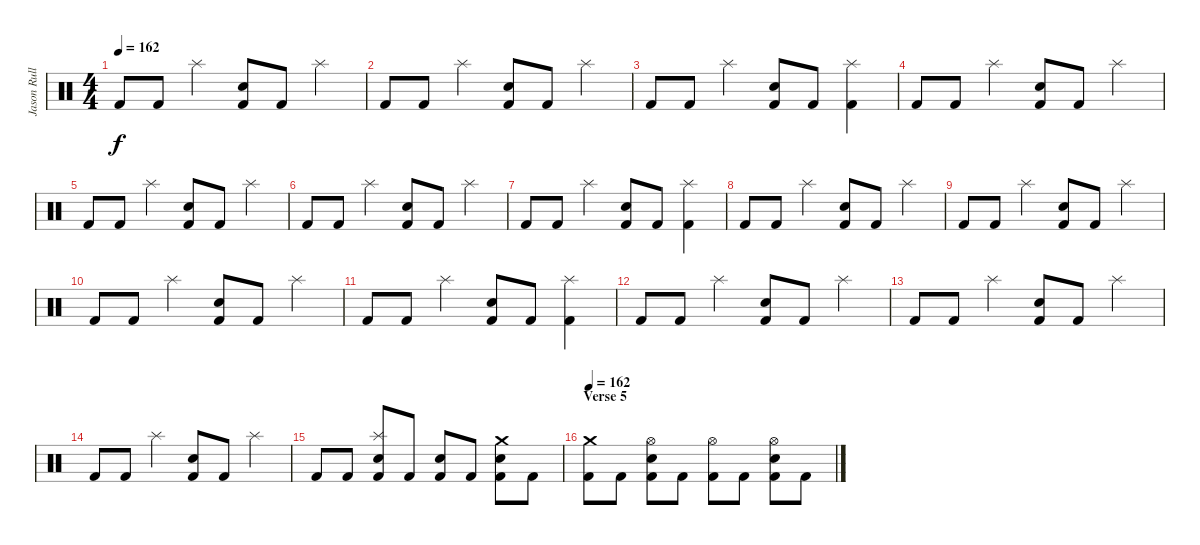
\track ("Jason Rullo" "Jason Rull") {instrument percussion}
\staff {score}
\articulation defaults
\ts (4 4)
\tempo 162
\clef neutral
\ks c "Kick (hit) 2".8{dy f} "Kick (hit) 2".8 "Splash (hit)".4
("Kick (hit) 2" "Electric Snare (hit)").8 "Kick (hit) 2".8 "Splash (hit)".4 |
"Kick (hit) 2".8 "Kick (hit) 2".8 "Splash (hit)".4 ("Kick (hit) 2" "Electric Snare (hit)").8 "Kick (hit) 2".8 "Splash (hit)".4 |
"Kick (hit) 2".8 "Kick (hit) 2".8 "Splash (hit)".4 ("Kick (hit) 2" "Electric Snare (hit)").8 "Kick (hit) 2".8 ("Splash (hit)" "Kick (hit) 2").4 |
"Kick (hit) 2".8 "Kick (hit) 2".8 "Splash (hit)".4 ("Kick (hit) 2" "Electric Snare (hit)").8 "Kick (hit) 2".8 "Splash (hit)".4 |
"Kick (hit) 2".8 "Kick (hit) 2".8 "Splash (hit)".4 ("Kick (hit) 2" "Electric Snare (hit)").8 "Kick (hit) 2".8 "Splash (hit)".4 |
"Kick (hit) 2".8 "Kick (hit) 2".8 "Splash (hit)".4 ("Kick (hit) 2" "Electric Snare (hit)").8 "Kick (hit) 2".8 "Splash (hit)".4 |
"Kick (hit) 2".8 "Kick (hit) 2".8 "Splash (hit)".4 ("Kick (hit) 2" "Electric Snare (hit)").8 "Kick (hit) 2".8 ("Splash (hit)" "Kick (hit) 2").4 |
"Kick (hit) 2".8 "Kick (hit) 2".8 "Splash (hit)".4 ("Kick (hit) 2" "Electric Snare (hit)").8 "Kick (hit) 2".8 "Splash (hit)".4 |
"Kick (hit) 2".8 "Kick (hit) 2".8 "Splash (hit)".4 ("Kick (hit) 2" "Electric Snare (hit)").8 "Kick (hit) 2".8 "Splash (hit)".4 |
"Kick (hit) 2".8 "Kick (hit) 2".8 "Splash (hit)".4 ("Kick (hit) 2" "Electric Snare (hit)").8 "Kick (hit) 2".8 "Splash (hit)".4 |
"Kick (hit) 2".8 "Kick (hit) 2".8 "Splash (hit)".4 ("Kick (hit) 2" "Electric Snare (hit)").8 "Kick (hit) 2".8 ("Splash (hit)" "Kick (hit) 2").4 |
"Kick (hit) 2".8 "Kick (hit) 2".8 "Splash (hit)".4 ("Kick (hit) 2" "Electric Snare (hit)").8 "Kick (hit) 2".8 "Splash (hit)".4 |
"Kick (hit) 2".8 "Kick (hit) 2".8 "Splash (hit)".4 ("Kick (hit) 2" "Electric Snare (hit)").8 "Kick (hit) 2".8 "Splash (hit)".4 |
"Kick (hit) 2".8 "Kick (hit) 2".8 "Splash (hit)".4 ("Kick (hit) 2" "Electric Snare (hit)").8 "Kick (hit) 2".8 "Splash (hit)".4 |
"Kick (hit) 2".8 "Kick (hit) 2".8 ("Electric Snare (hit)" "Splash (hit)" "Kick (hit) 2").8 "Kick (hit) 2".8 ("Kick (hit) 2" "Electric Snare (hit)").8 "Kick (hit) 2".8 ("Crash medium (hit)" "Electric Snare (hit)" "Kick (hit) 2").8 "Kick (hit) 2".8 |
\section ("" "Verse 5")
\tempo 162
("Crash medium (hit)" "Kick (hit) 2").8 "Kick (hit) 2".8 ("Hi-Hat (open)" "Electric Snare (hit)" "Kick (hit) 2").8 "Kick (hit) 2".8 ("Hi-Hat (open)" "Kick (hit) 2").8 "Kick (hit) 2".8 ("Hi-Hat (open)" "Electric Snare (hit)" "Kick (hit) 2").8 "Kick (hit) 2".8
